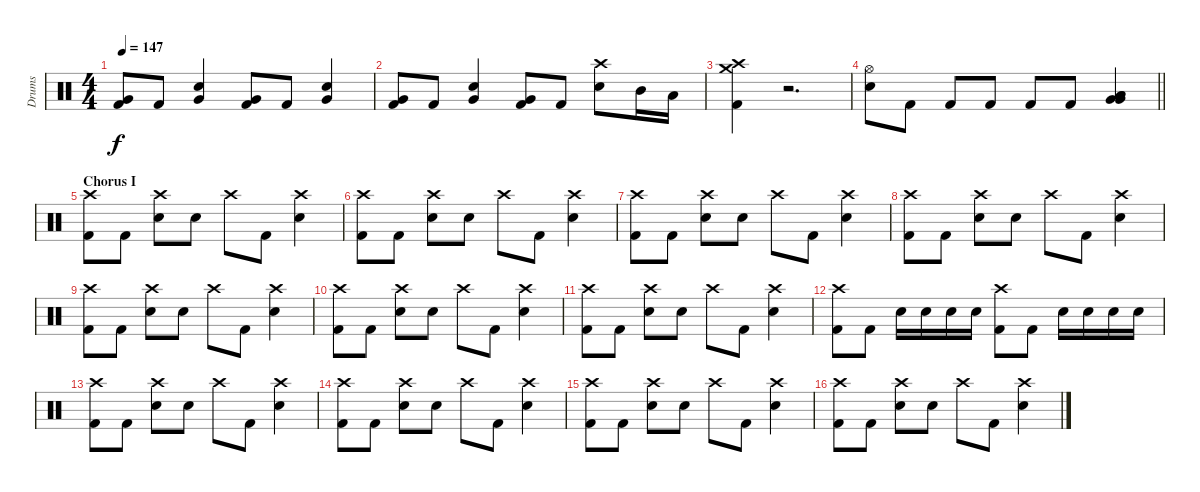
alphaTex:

\track ("Drums" "Drums") {instrument percussion}
\staff {score}
\articulation defaults
\ts (4 4)
\tempo 147
\clef neutral
\ks c
("Very Low Tom (hit)" "Kick (hit) 2").8{dy f} "Kick (hit) 2".8 ("Very Low Tom (hit)" "Electric Snare (hit)").4 ("Very Low Tom (hit)" "Kick (hit) 2").8 "Kick (hit) 2".8 ("Very Low Tom (hit)" "Electric Snare (hit)").4 |
("Very Low Tom (hit)" "Kick (hit) 2").8 "Kick (hit) 2".8 ("Very Low Tom (hit)" "Electric Snare (hit)").4 ("Very Low Tom (hit)" "Kick (hit) 2").8 "Kick (hit) 2".8 ("Crash high (hit)" "Electric Snare (hit)").8 "Mid Tom (hit)".16 "Low Tom (hit)".16 |
("Crash medium (hit)" "Crash high (hit)" "Kick (hit) 2").4 r.2{d} |
\barLineRight lightlight
("Hi-Hat (open)" "Electric Snare (hit)").8 "Kick (hit) 2".8 "Kick (hit) 2".8 "Kick (hit) 2".8 "Kick (hit) 2".8 "Kick (hit) 2".8 ("Low Tom (hit)" "Low Tom (hit)" "Very Low Tom (hit)" "Very Low Tom (hit)").4 |
\section ("" "Chorus I")
("Crash high (hit)" "Kick (hit) 2").8 "Kick (hit) 2".8 ("Crash high (hit)" "Electric Snare (hit)").8 "Electric Snare (hit)".8 "Crash high (hit)".8 "Kick (hit) 2".8 ("Crash high (hit)" "Electric Snare (hit)").4 |
("Crash high (hit)" "Kick (hit) 2").8 "Kick (hit) 2".8 ("Crash high (hit)" "Electric Snare (hit)").8 "Electric Snare (hit)".8 "Crash high (hit)".8 "Kick (hit) 2".8 ("Crash high (hit)" "Electric Snare (hit)").4 |
("Crash high (hit)" "Kick (hit) 2").8 "Kick (hit) 2".8 ("Crash high (hit)" "Electric Snare (hit)").8 "Electric Snare (hit)".8 "Crash high (hit)".8 "Kick (hit) 2".8 ("Crash high (hit)" "Electric Snare (hit)").4 |
("Crash high (hit)" "Kick (hit) 2").8 "Kick (hit) 2".8 ("Crash high (hit)" "Electric Snare (hit)").8 "Electric Snare (hit)".8 "Crash high (hit)".8 "Kick (hit) 2".8 ("Crash high (hit)" "Electric Snare (hit)").4 |
("Crash high (hit)" "Kick (hit) 2").8 "Kick (hit) 2".8 ("Crash high (hit)" "Electric Snare (hit)").8 "Electric Snare (hit)".8 "Crash high (hit)".8 "Kick (hit) 2".8 ("Crash high (hit)" "Electric Snare (hit)").4 |
("Crash high (hit)" "Kick (hit) 2").8 "Kick (hit) 2".8 ("Crash high (hit)" "Electric Snare (hit)").8 "Electric Snare (hit)".8 "Crash high (hit)".8 "Kick (hit) 2".8 ("Crash high (hit)" "Electric Snare (hit)").4 |
("Crash high (hit)" "Kick (hit) 2").8 "Kick (hit) 2".8 ("Crash high (hit)" "Electric Snare (hit)").8 "Electric Snare (hit)".8 "Crash high (hit)".8 "Kick (hit) 2".8 ("Crash high (hit)" "Electric Snare (hit)").4 |
("Crash high (hit)" "Kick (hit) 2").8 "Kick (hit) 2".8 "Electric Snare (hit)".16 "Electric Snare (hit)".16 "Electric Snare (hit)".16 "Electric Snare (hit)".16 ("Crash high (hit)" "Kick (hit) 2").8 "Kick (hit) 2".8 "Electric Snare (hit)".16 "Electric Snare (hit)".16 "Electric Snare (hit)".16 "Electric Snare (hit)".16 |
("Crash high (hit)" "Kick (hit) 2").8 "Kick (hit) 2".8 ("Crash high (hit)" "Electric Snare (hit)").8 "Electric Snare (hit)".8 "Crash high (hit)".8 "Kick (hit) 2".8 ("Crash high (hit)" "Electric Snare (hit)").4 |
("Crash high (hit)" "Kick (hit) 2").8 "Kick (hit) 2".8 ("Crash high (hit)" "Electric Snare (hit)").8 "Electric Snare (hit)".8 "Crash high (hit)".8 "Kick (hit) 2".8 ("Crash high (hit)" "Electric Snare (hit)").4 |
("Crash high (hit)" "Kick (hit) 2").8 "Kick (hit) 2".8 ("Crash high (hit)" "Electric Snare (hit)").8 "Electric Snare (hit)".8 "Crash high (hit)".8 "Kick (hit) 2".8 ("Crash high (hit)" "Electric Snare (hit)").4 |
("Crash high (hit)" "Kick (hit) 2").8 "Kick (hit) 2".8 ("Crash high (hit)" "Electric Snare (hit)").8 "Electric Snare (hit)".8 "Crash high (hit)".8 "Kick (hit) 2".8 ("Crash high (hit)" "Electric Snare (hit)").4
